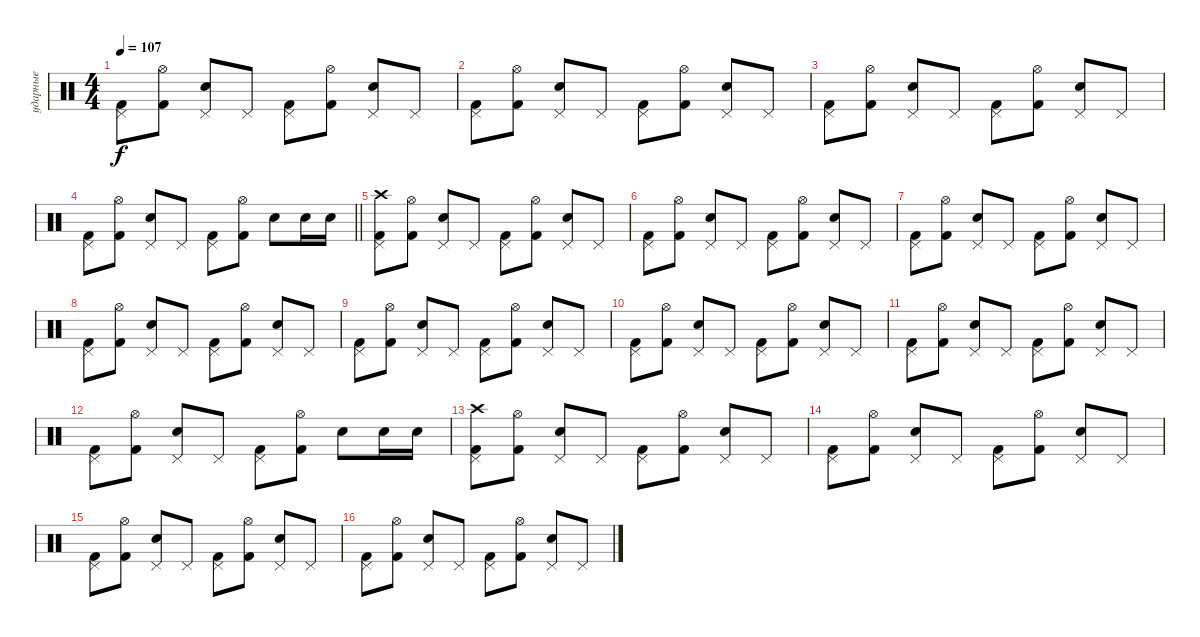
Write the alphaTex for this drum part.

\track ("ударные" "ударные") {instrument percussion}
\staff {score}
\articulation defaults
\ts (4 4)
\tempo 107
\clef neutral
\ks c
("Kick (hit) 2" "Pedal Hi-Hat (hit)").8{dy f} ("Kick (hit) 2" "Hi-Hat (open)").8 ("Pedal Hi-Hat (hit)" "Snare (hit) 2").8 "Pedal Hi-Hat (hit)".8 ("Kick (hit) 2" "Pedal Hi-Hat (hit)").8 ("Kick (hit) 2" "Hi-Hat (open)").8 ("Pedal Hi-Hat (hit)" "Snare (hit) 2").8 "Pedal Hi-Hat (hit)".8 |
("Kick (hit) 2" "Pedal Hi-Hat (hit)").8 ("Kick (hit) 2" "Hi-Hat (open)").8 ("Pedal Hi-Hat (hit)" "Snare (hit) 2").8 "Pedal Hi-Hat (hit)".8 ("Kick (hit) 2" "Pedal Hi-Hat (hit)").8 ("Kick (hit) 2" "Hi-Hat (open)").8 ("Pedal Hi-Hat (hit)" "Snare (hit) 2").8 "Pedal Hi-Hat (hit)".8 |
("Kick (hit) 2" "Pedal Hi-Hat (hit)").8 ("Kick (hit) 2" "Hi-Hat (open)").8 ("Pedal Hi-Hat (hit)" "Snare (hit) 2").8 "Pedal Hi-Hat (hit)".8 ("Kick (hit) 2" "Pedal Hi-Hat (hit)").8 ("Kick (hit) 2" "Hi-Hat (open)").8 ("Pedal Hi-Hat (hit)" "Snare (hit) 2").8 "Pedal Hi-Hat (hit)".8 |
\barLineRight lightlight
("Kick (hit) 2" "Pedal Hi-Hat (hit)").8 ("Kick (hit) 2" "Hi-Hat (open)").8 ("Pedal Hi-Hat (hit)" "Snare (hit) 2").8 "Pedal Hi-Hat (hit)".8 ("Kick (hit) 2" "Pedal Hi-Hat (hit)").8 ("Kick (hit) 2" "Hi-Hat (open)").8 "Snare (hit) 2".8 "Snare (hit) 2".16 "Snare (hit) 2".16 |
("Kick (hit) 2" "Pedal Hi-Hat (hit)" "Crash high (hit)").8 ("Kick (hit) 2" "Hi-Hat (open)").8 ("Pedal Hi-Hat (hit)" "Snare (hit) 2").8 "Pedal Hi-Hat (hit)".8 ("Kick (hit) 2" "Pedal Hi-Hat (hit)").8 ("Kick (hit) 2" "Hi-Hat (open)").8 ("Pedal Hi-Hat (hit)" "Snare (hit) 2").8 "Pedal Hi-Hat (hit)".8 |
("Kick (hit) 2" "Pedal Hi-Hat (hit)").8 ("Kick (hit) 2" "Hi-Hat (open)").8 ("Pedal Hi-Hat (hit)" "Snare (hit) 2").8 "Pedal Hi-Hat (hit)".8 ("Kick (hit) 2" "Pedal Hi-Hat (hit)").8 ("Kick (hit) 2" "Hi-Hat (open)").8 ("Pedal Hi-Hat (hit)" "Snare (hit) 2").8 "Pedal Hi-Hat (hit)".8 |
("Kick (hit) 2" "Pedal Hi-Hat (hit)").8 ("Kick (hit) 2" "Hi-Hat (open)").8 ("Pedal Hi-Hat (hit)" "Snare (hit) 2").8 "Pedal Hi-Hat (hit)".8 ("Kick (hit) 2" "Pedal Hi-Hat (hit)").8 ("Kick (hit) 2" "Hi-Hat (open)").8 ("Pedal Hi-Hat (hit)" "Snare (hit) 2").8 "Pedal Hi-Hat (hit)".8 |
("Kick (hit) 2" "Pedal Hi-Hat (hit)").8 ("Kick (hit) 2" "Hi-Hat (open)").8 ("Pedal Hi-Hat (hit)" "Snare (hit) 2").8 "Pedal Hi-Hat (hit)".8 ("Kick (hit) 2" "Pedal Hi-Hat (hit)").8 ("Kick (hit) 2" "Hi-Hat (open)").8 ("Pedal Hi-Hat (hit)" "Snare (hit) 2").8 "Pedal Hi-Hat (hit)".8 |
("Kick (hit) 2" "Pedal Hi-Hat (hit)").8 ("Kick (hit) 2" "Hi-Hat (open)").8 ("Pedal Hi-Hat (hit)" "Snare (hit) 2").8 "Pedal Hi-Hat (hit)".8 ("Kick (hit) 2" "Pedal Hi-Hat (hit)").8 ("Kick (hit) 2" "Hi-Hat (open)").8 ("Pedal Hi-Hat (hit)" "Snare (hit) 2").8 "Pedal Hi-Hat (hit)".8 |
("Kick (hit) 2" "Pedal Hi-Hat (hit)").8 ("Kick (hit) 2" "Hi-Hat (open)").8 ("Pedal Hi-Hat (hit)" "Snare (hit) 2").8 "Pedal Hi-Hat (hit)".8 ("Kick (hit) 2" "Pedal Hi-Hat (hit)").8 ("Kick (hit) 2" "Hi-Hat (open)").8 ("Pedal Hi-Hat (hit)" "Snare (hit) 2").8 "Pedal Hi-Hat (hit)".8 |
("Kick (hit) 2" "Pedal Hi-Hat (hit)").8 ("Kick (hit) 2" "Hi-Hat (open)").8 ("Pedal Hi-Hat (hit)" "Snare (hit) 2").8 "Pedal Hi-Hat (hit)".8 ("Kick (hit) 2" "Pedal Hi-Hat (hit)").8 ("Kick (hit) 2" "Hi-Hat (open)").8 ("Pedal Hi-Hat (hit)" "Snare (hit) 2").8 "Pedal Hi-Hat (hit)".8 |
("Kick (hit) 2" "Pedal Hi-Hat (hit)").8 ("Kick (hit) 2" "Hi-Hat (open)").8 ("Pedal Hi-Hat (hit)" "Snare (hit) 2").8 "Pedal Hi-Hat (hit)".8 ("Kick (hit) 2" "Pedal Hi-Hat (hit)").8 ("Kick (hit) 2" "Hi-Hat (open)").8 "Snare (hit) 2".8 "Snare (hit) 2".16 "Snare (hit) 2".16 |
("Kick (hit) 2" "Pedal Hi-Hat (hit)" "Crash high (hit)").8 ("Kick (hit) 2" "Hi-Hat (open)").8 ("Pedal Hi-Hat (hit)" "Snare (hit) 2").8 "Pedal Hi-Hat (hit)".8 ("Kick (hit) 2" "Pedal Hi-Hat (hit)").8 ("Kick (hit) 2" "Hi-Hat (open)").8 ("Pedal Hi-Hat (hit)" "Snare (hit) 2").8 "Pedal Hi-Hat (hit)".8 |
("Kick (hit) 2" "Pedal Hi-Hat (hit)").8 ("Kick (hit) 2" "Hi-Hat (open)").8 ("Pedal Hi-Hat (hit)" "Snare (hit) 2").8 "Pedal Hi-Hat (hit)".8 ("Kick (hit) 2" "Pedal Hi-Hat (hit)").8 ("Kick (hit) 2" "Hi-Hat (open)").8 ("Pedal Hi-Hat (hit)" "Snare (hit) 2").8 "Pedal Hi-Hat (hit)".8 |
("Kick (hit) 2" "Pedal Hi-Hat (hit)").8 ("Kick (hit) 2" "Hi-Hat (open)").8 ("Pedal Hi-Hat (hit)" "Snare (hit) 2").8 "Pedal Hi-Hat (hit)".8 ("Kick (hit) 2" "Pedal Hi-Hat (hit)").8 ("Kick (hit) 2" "Hi-Hat (open)").8 ("Pedal Hi-Hat (hit)" "Snare (hit) 2").8 "Pedal Hi-Hat (hit)".8 |
("Kick (hit) 2" "Pedal Hi-Hat (hit)").8 ("Kick (hit) 2" "Hi-Hat (open)").8 ("Pedal Hi-Hat (hit)" "Snare (hit) 2").8 "Pedal Hi-Hat (hit)".8 ("Kick (hit) 2" "Pedal Hi-Hat (hit)").8 ("Kick (hit) 2" "Hi-Hat (open)").8 ("Pedal Hi-Hat (hit)" "Snare (hit) 2").8 "Pedal Hi-Hat (hit)".8
